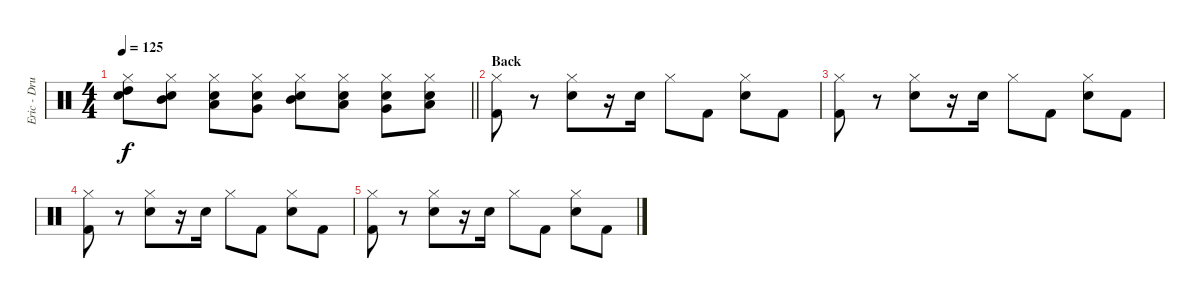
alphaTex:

\track ("Eric - Drums" "Eric - Dru") {instrument percussion}
\staff {score}
\articulation defaults
\ts (4 4)
\tempo 125
\clef neutral
\barLineRight lightlight
\ks c
("Hi-Hat (closed)" "High Tom (hit)" "Snare (hit) 2").8{dy f} ("Hi-Hat (closed)" "Mid Tom (hit)" "Snare (hit) 2").8 ("Hi-Hat (closed)" "Low Tom (hit)" "Snare (hit) 2").8 ("Hi-Hat (closed)" "Very Low Tom (hit)" "Snare (hit) 2").8 ("Hi-Hat (closed)" "Mid Tom (hit)" "Snare (hit) 2").8 ("Hi-Hat (closed)" "Low Tom (hit)" "Snare (hit) 2").8 ("Hi-Hat (closed)" "Very Low Tom (hit)" "Snare (hit) 2").8 ("Hi-Hat (closed)" "Low Floor Tom (hit)" "Snare (hit) 2").8 |
\section ("" "Back")
("Hi-Hat (closed)" "Kick (hit) 2").8 r.8 ("Hi-Hat (closed)" "Snare (hit) 2").8 r.16 "Snare (hit) 2".16 "Hi-Hat (closed)".8 "Kick (hit) 2".8 ("Hi-Hat (closed)" "Snare (hit) 2").8 "Kick (hit) 2".8 |
("Hi-Hat (closed)" "Kick (hit) 2").8 r.8 ("Hi-Hat (closed)" "Snare (hit) 2").8 r.16 "Snare (hit) 2".16 "Hi-Hat (closed)".8 "Kick (hit) 2".8 ("Hi-Hat (closed)" "Snare (hit) 2").8 "Kick (hit) 2".8 |
("Hi-Hat (closed)" "Kick (hit) 2").8 r.8 ("Hi-Hat (closed)" "Snare (hit) 2").8 r.16 "Snare (hit) 2".16 "Hi-Hat (closed)".8 "Kick (hit) 2".8 ("Hi-Hat (closed)" "Snare (hit) 2").8 "Kick (hit) 2".8 |
("Hi-Hat (closed)" "Kick (hit) 2").8 r.8 ("Hi-Hat (closed)" "Snare (hit) 2").8 r.16 "Snare (hit) 2".16 "Hi-Hat (closed)".8 "Kick (hit) 2".8 ("Hi-Hat (closed)" "Snare (hit) 2").8 "Kick (hit) 2".8
